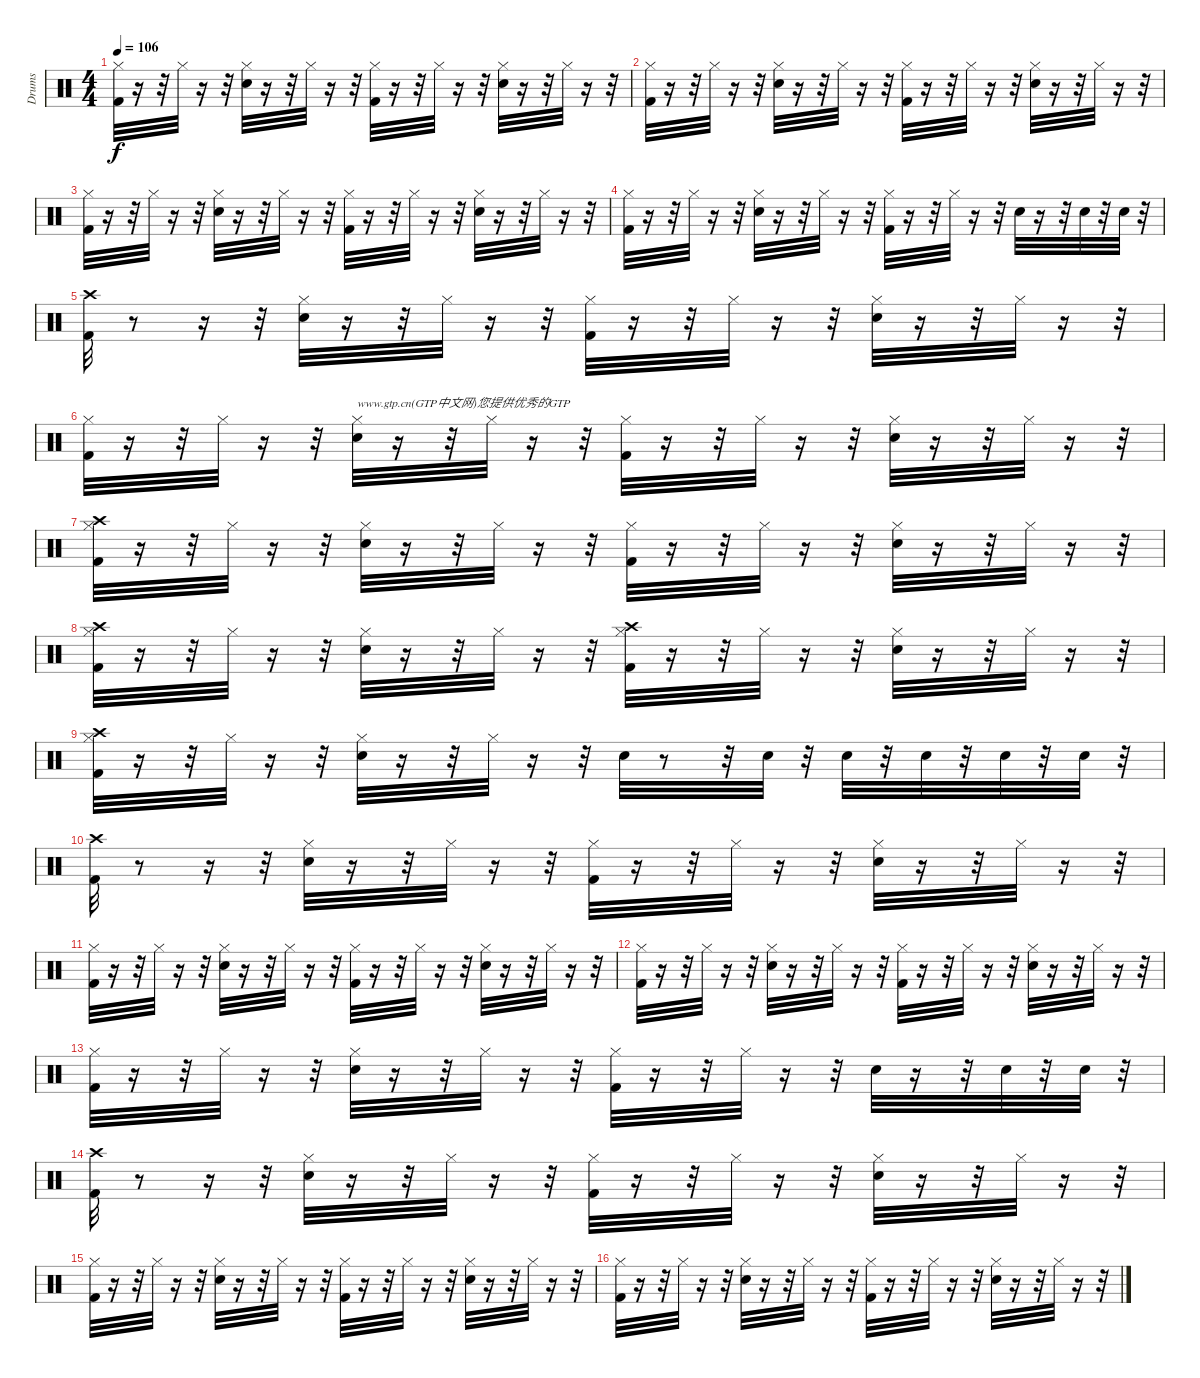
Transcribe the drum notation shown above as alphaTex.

\track ("Drums" "Drums") {instrument percussion}
\staff {score}
\articulation defaults
\ts (4 4)
\tempo 106
\clef neutral
\ks c
("Hi-Hat (closed)" "Kick (hit) 2").32{dy f} r.16 r.32 "Hi-Hat (closed)".32 r.16 r.32 ("Hi-Hat (closed)" "Snare (hit) 2").32 r.16 r.32 "Hi-Hat (closed)".32 r.16 r.32 ("Hi-Hat (closed)" "Kick (hit) 2").32 r.16 r.32 "Hi-Hat (closed)".32 r.16 r.32 ("Hi-Hat (closed)" "Snare (hit) 2").32 r.16 r.32 "Hi-Hat (closed)".32 r.16 r.32 |
("Hi-Hat (closed)" "Kick (hit) 2").32 r.16 r.32 "Hi-Hat (closed)".32 r.16 r.32 ("Hi-Hat (closed)" "Snare (hit) 2").32 r.16 r.32 "Hi-Hat (closed)".32 r.16 r.32 ("Hi-Hat (closed)" "Kick (hit) 2").32 r.16 r.32 "Hi-Hat (closed)".32 r.16 r.32 ("Hi-Hat (closed)" "Snare (hit) 2").32 r.16 r.32 "Hi-Hat (closed)".32 r.16 r.32 |
("Hi-Hat (closed)" "Kick (hit) 2").32 r.16 r.32 "Hi-Hat (closed)".32 r.16 r.32 ("Hi-Hat (closed)" "Snare (hit) 2").32 r.16 r.32 "Hi-Hat (closed)".32 r.16 r.32 ("Hi-Hat (closed)" "Kick (hit) 2").32 r.16 r.32 "Hi-Hat (closed)".32 r.16 r.32 ("Hi-Hat (closed)" "Snare (hit) 2").32 r.16 r.32 "Hi-Hat (closed)".32 r.16 r.32 |
("Hi-Hat (closed)" "Kick (hit) 2").32 r.16 r.32 "Hi-Hat (closed)".32 r.16 r.32 ("Hi-Hat (closed)" "Snare (hit) 2").32 r.16 r.32 "Hi-Hat (closed)".32 r.16 r.32 ("Hi-Hat (closed)" "Kick (hit) 2").32 r.16 r.32 "Hi-Hat (closed)".32 r.16 r.32 "Snare (hit) 2".32 r.16 r.32 "Snare (hit) 2".32 r.32 "Snare (hit) 2".32 r.32 |
("Crash high (hit)" "Kick (hit) 2").32 r.8 r.16 r.32 ("Hi-Hat (closed)" "Snare (hit) 2").32 r.16 r.32 "Hi-Hat (closed)".32 r.16 r.32 ("Hi-Hat (closed)" "Kick (hit) 2").32 r.16 r.32 "Hi-Hat (closed)".32 r.16 r.32 ("Hi-Hat (closed)" "Snare (hit) 2").32 r.16 r.32 "Hi-Hat (closed)".32 r.16 r.32 |
("Hi-Hat (closed)" "Kick (hit) 2").32 r.16 r.32 "Hi-Hat (closed)".32 r.16 r.32 ("Hi-Hat (closed)" "Snare (hit) 2").32{txt "www.gtp.cn(GTP中文网)您提供优秀的GTP"} r.16 r.32 "Hi-Hat (closed)".32 r.16 r.32 ("Hi-Hat (closed)" "Kick (hit) 2").32 r.16 r.32 "Hi-Hat (closed)".32 r.16 r.32 ("Hi-Hat (closed)" "Snare (hit) 2").32 r.16 r.32 "Hi-Hat (closed)".32 r.16 r.32 |
("Crash high (hit)" "Hi-Hat (closed)" "Kick (hit) 2").32 r.16 r.32 "Hi-Hat (closed)".32 r.16 r.32 ("Hi-Hat (closed)" "Snare (hit) 2").32 r.16 r.32 "Hi-Hat (closed)".32 r.16 r.32 ("Hi-Hat (closed)" "Kick (hit) 2").32 r.16 r.32 "Hi-Hat (closed)".32 r.16 r.32 ("Hi-Hat (closed)" "Snare (hit) 2").32 r.16 r.32 "Hi-Hat (closed)".32 r.16 r.32 |
("Crash high (hit)" "Hi-Hat (closed)" "Kick (hit) 2").32 r.16 r.32 "Hi-Hat (closed)".32 r.16 r.32 ("Hi-Hat (closed)" "Snare (hit) 2").32 r.16 r.32 "Hi-Hat (closed)".32 r.16 r.32 ("Crash high (hit)" "Hi-Hat (closed)" "Kick (hit) 2").32 r.16 r.32 "Hi-Hat (closed)".32 r.16 r.32 ("Hi-Hat (closed)" "Snare (hit) 2").32 r.16 r.32 "Hi-Hat (closed)".32 r.16 r.32 |
("Crash high (hit)" "Hi-Hat (closed)" "Kick (hit) 2").32 r.16 r.32 "Hi-Hat (closed)".32 r.16 r.32 ("Hi-Hat (closed)" "Snare (hit) 2").32 r.16 r.32 "Hi-Hat (closed)".32 r.16 r.32 "Snare (hit) 2".32 r.8 r.32 "Snare (hit) 2".32 r.32 "Snare (hit) 2".32 r.32 "Snare (hit) 2".32 r.32 "Snare (hit) 2".32 r.32 "Snare (hit) 2".32 r.32 |
("Crash high (hit)" "Kick (hit) 2").32 r.8 r.16 r.32 ("Hi-Hat (closed)" "Snare (hit) 2").32 r.16 r.32 "Hi-Hat (closed)".32 r.16 r.32 ("Hi-Hat (closed)" "Kick (hit) 2").32 r.16 r.32 "Hi-Hat (closed)".32 r.16 r.32 ("Hi-Hat (closed)" "Snare (hit) 2").32 r.16 r.32 "Hi-Hat (closed)".32 r.16 r.32 |
("Hi-Hat (closed)" "Kick (hit) 2").32 r.16 r.32 "Hi-Hat (closed)".32 r.16 r.32 ("Hi-Hat (closed)" "Snare (hit) 2").32 r.16 r.32 "Hi-Hat (closed)".32 r.16 r.32 ("Hi-Hat (closed)" "Kick (hit) 2").32 r.16 r.32 "Hi-Hat (closed)".32 r.16 r.32 ("Hi-Hat (closed)" "Snare (hit) 2").32 r.16 r.32 "Hi-Hat (closed)".32 r.16 r.32 |
("Hi-Hat (closed)" "Kick (hit) 2").32 r.16 r.32 "Hi-Hat (closed)".32 r.16 r.32 ("Hi-Hat (closed)" "Snare (hit) 2").32 r.16 r.32 "Hi-Hat (closed)".32 r.16 r.32 ("Hi-Hat (closed)" "Kick (hit) 2").32 r.16 r.32 "Hi-Hat (closed)".32 r.16 r.32 ("Hi-Hat (closed)" "Snare (hit) 2").32 r.16 r.32 "Hi-Hat (closed)".32 r.16 r.32 |
("Hi-Hat (closed)" "Kick (hit) 2").32 r.16 r.32 "Hi-Hat (closed)".32 r.16 r.32 ("Hi-Hat (closed)" "Snare (hit) 2").32 r.16 r.32 "Hi-Hat (closed)".32 r.16 r.32 ("Hi-Hat (closed)" "Kick (hit) 2").32 r.16 r.32 "Hi-Hat (closed)".32 r.16 r.32 "Snare (hit) 2".32 r.16 r.32 "Snare (hit) 2".32 r.32 "Snare (hit) 2".32 r.32 |
("Crash high (hit)" "Kick (hit) 2").32 r.8 r.16 r.32 ("Hi-Hat (closed)" "Snare (hit) 2").32 r.16 r.32 "Hi-Hat (closed)".32 r.16 r.32 ("Hi-Hat (closed)" "Kick (hit) 2").32 r.16 r.32 "Hi-Hat (closed)".32 r.16 r.32 ("Hi-Hat (closed)" "Snare (hit) 2").32 r.16 r.32 "Hi-Hat (closed)".32 r.16 r.32 |
("Hi-Hat (closed)" "Kick (hit) 2").32 r.16 r.32 "Hi-Hat (closed)".32 r.16 r.32 ("Hi-Hat (closed)" "Snare (hit) 2").32 r.16 r.32 "Hi-Hat (closed)".32 r.16 r.32 ("Hi-Hat (closed)" "Kick (hit) 2").32 r.16 r.32 "Hi-Hat (closed)".32 r.16 r.32 ("Hi-Hat (closed)" "Snare (hit) 2").32 r.16 r.32 "Hi-Hat (closed)".32 r.16 r.32 |
("Hi-Hat (closed)" "Kick (hit) 2").32 r.16 r.32 "Hi-Hat (closed)".32 r.16 r.32 ("Hi-Hat (closed)" "Snare (hit) 2").32 r.16 r.32 "Hi-Hat (closed)".32 r.16 r.32 ("Hi-Hat (closed)" "Kick (hit) 2").32 r.16 r.32 "Hi-Hat (closed)".32 r.16 r.32 ("Hi-Hat (closed)" "Snare (hit) 2").32 r.16 r.32 "Hi-Hat (closed)".32 r.16 r.32
